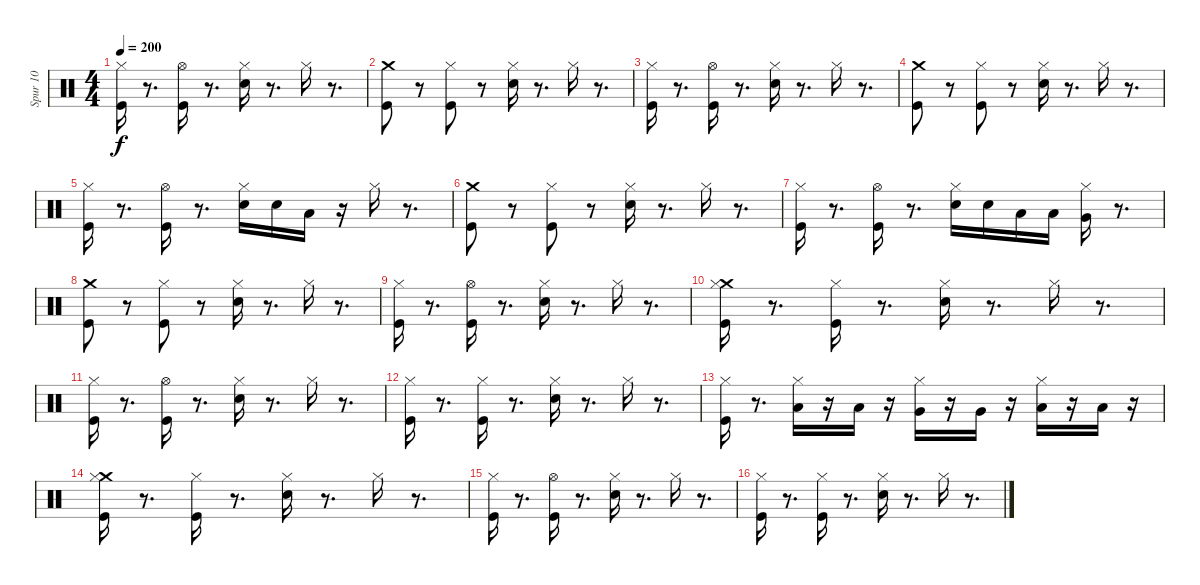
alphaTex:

\track ("Spur 10" "Spur 10") {instrument percussion}
\staff {score}
\articulation defaults
\ts (4 4)
\tempo 200
\clef neutral
\ks c
("Kick (hit)" "Hi-Hat (closed)").16{dy f} r.8{d} ("Kick (hit)" "Hi-Hat (open)").16 r.8{d} ("Snare (hit) 2" "Hi-Hat (closed)").16 r.8{d} "Hi-Hat (closed)".16 r.8{d} |
("Crash medium (hit)" "Kick (hit)").8 r.8 ("Kick (hit)" "Hi-Hat (closed)").8 r.8 ("Snare (hit) 2" "Hi-Hat (closed)").16 r.8{d} "Hi-Hat (closed)".16 r.8{d} |
("Kick (hit)" "Hi-Hat (closed)").16 r.8{d} ("Kick (hit)" "Hi-Hat (open)").16 r.8{d} ("Snare (hit) 2" "Hi-Hat (closed)").16 r.8{d} "Hi-Hat (closed)".16 r.8{d} |
("Crash medium (hit)" "Kick (hit)").8 r.8 ("Kick (hit)" "Hi-Hat (closed)").8 r.8 ("Snare (hit) 2" "Hi-Hat (closed)").16 r.8{d} "Hi-Hat (closed)".16 r.8{d} |
("Kick (hit)" "Hi-Hat (closed)").16 r.8{d} ("Kick (hit)" "Hi-Hat (open)").16 r.8{d} ("Snare (hit) 2" "Hi-Hat (closed)").16 "Snare (hit) 2".16 "Low Tom (hit)".16 r.16 "Hi-Hat (closed)".16 r.8{d} |
("Crash medium (hit)" "Kick (hit)").8 r.8 ("Kick (hit)" "Hi-Hat (closed)").8 r.8 ("Snare (hit) 2" "Hi-Hat (closed)").16 r.8{d} "Hi-Hat (closed)".16 r.8{d} |
("Kick (hit)" "Hi-Hat (closed)").16 r.8{d} ("Kick (hit)" "Hi-Hat (open)").16 r.8{d} ("Snare (hit) 2" "Hi-Hat (closed)").16 "Snare (hit) 2".16 "Low Tom (hit)".16 "Low Tom (hit)".16 ("Very Low Tom (hit)" "Hi-Hat (closed)").16 r.8{d} |
("Crash medium (hit)" "Kick (hit)").8 r.8 ("Kick (hit)" "Hi-Hat (closed)").8 r.8 ("Snare (hit) 2" "Hi-Hat (closed)").16 r.8{d} "Hi-Hat (closed)".16 r.8{d} |
("Kick (hit)" "Hi-Hat (closed)").16 r.8{d} ("Kick (hit)" "Hi-Hat (open)").16 r.8{d} ("Snare (hit) 2" "Hi-Hat (closed)").16 r.8{d} "Hi-Hat (closed)".16 r.8{d} |
("Kick (hit)" "Crash medium (hit)" "Hi-Hat (closed)").16 r.8{d} ("Kick (hit)" "Hi-Hat (closed)").16 r.8{d} ("Snare (hit) 2" "Hi-Hat (closed)").16 r.8{d} "Hi-Hat (closed)".16 r.8{d} |
("Kick (hit)" "Hi-Hat (closed)").16 r.8{d} ("Kick (hit)" "Hi-Hat (open)").16 r.8{d} ("Snare (hit) 2" "Hi-Hat (closed)").16 r.8{d} "Hi-Hat (closed)".16 r.8{d} |
("Kick (hit)" "Hi-Hat (closed)").16 r.8{d} ("Kick (hit)" "Hi-Hat (closed)").16 r.8{d} ("Snare (hit) 2" "Hi-Hat (closed)").16 r.8{d} "Hi-Hat (closed)".16 r.8{d} |
("Kick (hit)" "Hi-Hat (closed)").16 r.8{d} ("Low Floor Tom (hit)" "Hi-Hat (closed)").16 r.16 "Low Floor Tom (hit)".16 r.16 ("Very Low Tom (hit)" "Hi-Hat (closed)").16 r.16 "Very Low Tom (hit)".16 r.16 ("Low Tom (hit)" "Hi-Hat (closed)").16 r.16 "Low Tom (hit)".16 r.16 |
("Kick (hit)" "Crash medium (hit)" "Hi-Hat (closed)").16 r.8{d} ("Kick (hit)" "Hi-Hat (closed)").16 r.8{d} ("Snare (hit) 2" "Hi-Hat (closed)").16 r.8{d} "Hi-Hat (closed)".16 r.8{d} |
("Kick (hit)" "Hi-Hat (closed)").16 r.8{d} ("Kick (hit)" "Hi-Hat (open)").16 r.8{d} ("Snare (hit) 2" "Hi-Hat (closed)").16 r.8{d} "Hi-Hat (closed)".16 r.8{d} |
("Kick (hit)" "Hi-Hat (closed)").16 r.8{d} ("Kick (hit)" "Hi-Hat (closed)").16 r.8{d} ("Snare (hit) 2" "Hi-Hat (closed)").16 r.8{d} "Hi-Hat (closed)".16 r.8{d}
